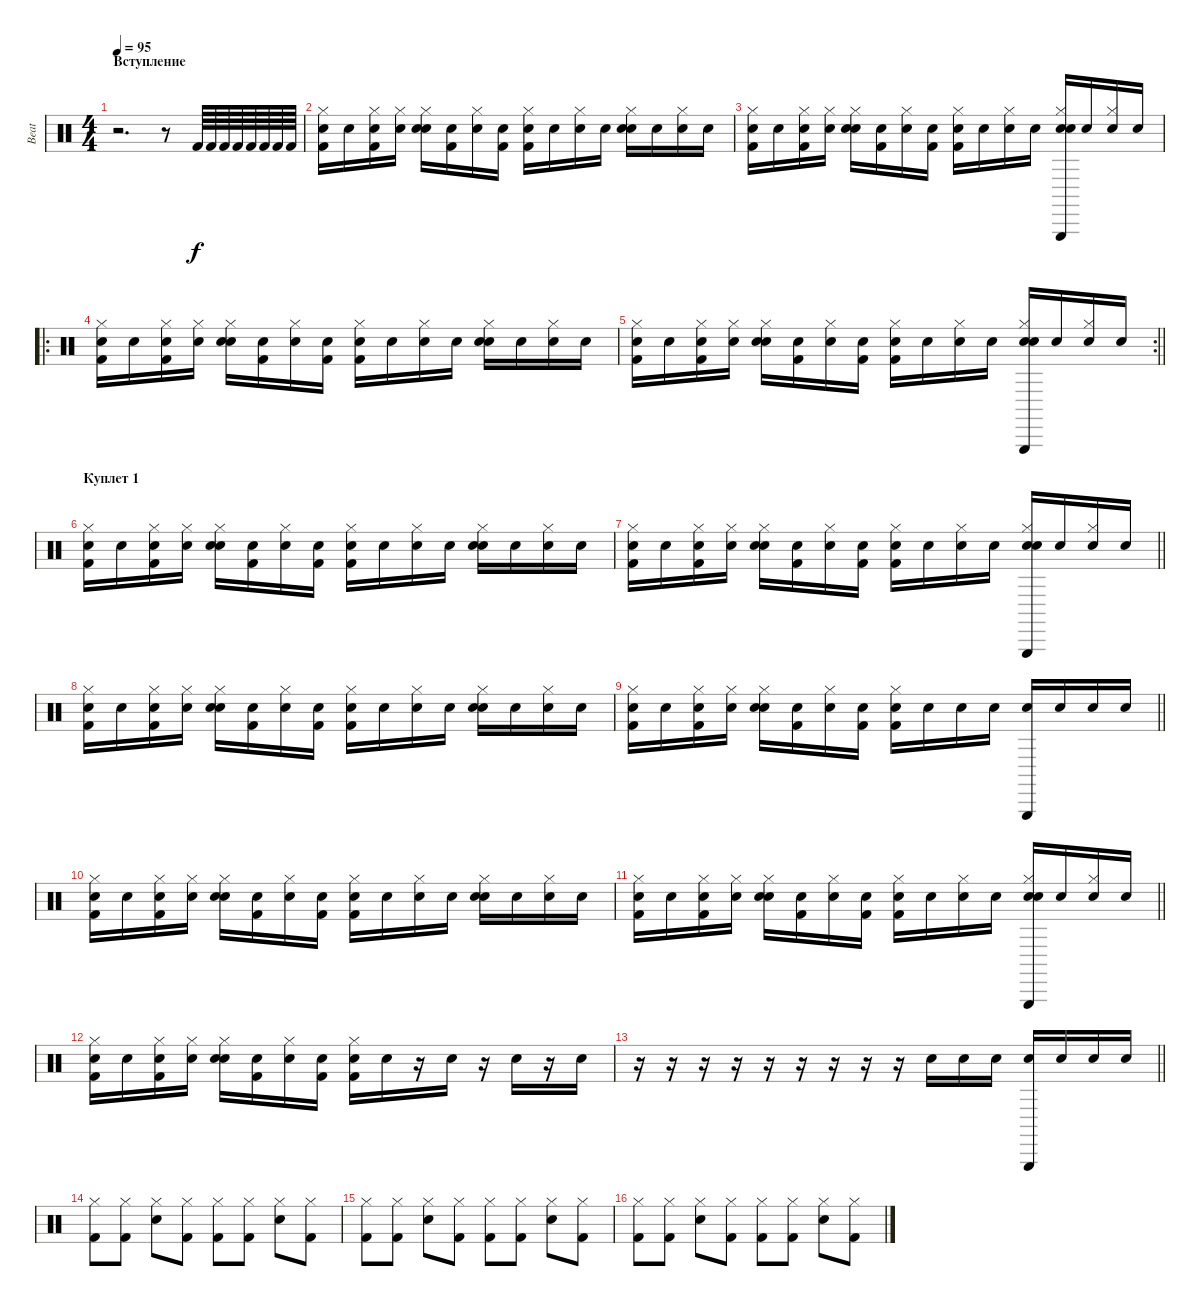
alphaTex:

\track ("Beat" "Beat") {instrument percussion}
\staff {score}
\articulation defaults
\ts (4 4)
\section ("" "Вступление")
\tempo 95
\clef neutral
\ks c
r.2{d dy f} r.8 "Kick (hit) 2".64 "Kick (hit) 2".64 "Kick (hit) 2".64 "Kick (hit) 2".64 "Kick (hit) 2".64 "Kick (hit) 2".64 "Kick (hit) 2".64 "Kick (hit) 2".64 |
("Snare (hit)"{x} "Kick (hit) 2" "Hi-Hat (closed)").16 "Snare (hit)"{x}.16 ("Snare (hit)"{x} "Kick (hit) 2" "Hi-Hat (closed)").16 ("Snare (hit)"{x} "Hi-Hat (closed)").16 ("Snare (hit)"{x} "Electric Snare (hit)" "Hi-Hat (closed)").16 ("Snare (hit)"{x} "Kick (hit) 2").16 ("Snare (hit)"{x} "Hi-Hat (closed)").16 ("Snare (hit)"{x} "Kick (hit) 2").16 ("Snare (hit)"{x} "Kick (hit) 2" "Hi-Hat (closed)").16 "Snare (hit)"{x}.16 ("Snare (hit)"{x} "Hi-Hat (closed)").16 "Snare (hit)"{x}.16 ("Snare (hit)"{x} "Electric Snare (hit)" "Hi-Hat (closed)").16 "Snare (hit)"{x}.16 ("Snare (hit)"{x} "Hi-Hat (closed)").16 "Snare (hit)"{x}.16 |
("Snare (hit)"{x} "Kick (hit) 2" "Hi-Hat (closed)").16 "Snare (hit)"{x}.16 ("Snare (hit)"{x} "Kick (hit) 2" "Hi-Hat (closed)").16 ("Snare (hit)"{x} "Hi-Hat (closed)").16 ("Snare (hit)"{x} "Electric Snare (hit)" "Hi-Hat (closed)").16 ("Snare (hit)"{x} "Kick (hit) 2").16 ("Snare (hit)"{x} "Hi-Hat (closed)").16 ("Snare (hit)"{x} "Kick (hit) 2").16 ("Snare (hit)"{x} "Kick (hit) 2" "Hi-Hat (closed)").16 "Snare (hit)"{x}.16 ("Snare (hit)"{x} "Hi-Hat (closed)").16 "Snare (hit)"{x}.16 ("Snare (hit)"{x} "Triangle (hit)" "Electric Snare (hit)" "Hi-Hat (closed)").16 "Snare (hit)"{x}.16 ("Snare (hit)"{x} "Hi-Hat (closed)").16 "Snare (hit)"{x}.16 |
\ro
("Snare (hit)"{x} "Kick (hit) 2" "Hi-Hat (closed)").16 "Snare (hit)"{x}.16 ("Snare (hit)"{x} "Kick (hit) 2" "Hi-Hat (closed)").16 ("Snare (hit)"{x} "Hi-Hat (closed)").16 ("Snare (hit)"{x} "Electric Snare (hit)" "Hi-Hat (closed)").16 ("Snare (hit)"{x} "Kick (hit) 2").16 ("Snare (hit)"{x} "Hi-Hat (closed)").16 ("Snare (hit)"{x} "Kick (hit) 2").16 ("Snare (hit)"{x} "Kick (hit) 2" "Hi-Hat (closed)").16 "Snare (hit)"{x}.16 ("Snare (hit)"{x} "Hi-Hat (closed)").16 "Snare (hit)"{x}.16 ("Snare (hit)"{x} "Electric Snare (hit)" "Hi-Hat (closed)").16 "Snare (hit)"{x}.16 ("Snare (hit)"{x} "Hi-Hat (closed)").16 "Snare (hit)"{x}.16 |
\rc 2
\barLineRight lightlight
("Snare (hit)"{x} "Kick (hit) 2" "Hi-Hat (closed)").16 "Snare (hit)"{x}.16 ("Snare (hit)"{x} "Kick (hit) 2" "Hi-Hat (closed)").16 ("Snare (hit)"{x} "Hi-Hat (closed)").16 ("Snare (hit)"{x} "Electric Snare (hit)" "Hi-Hat (closed)").16 ("Snare (hit)"{x} "Kick (hit) 2").16 ("Snare (hit)"{x} "Hi-Hat (closed)").16 ("Snare (hit)"{x} "Kick (hit) 2").16 ("Snare (hit)"{x} "Kick (hit) 2" "Hi-Hat (closed)").16 "Snare (hit)"{x}.16 ("Snare (hit)"{x} "Hi-Hat (closed)").16 "Snare (hit)"{x}.16 ("Snare (hit)"{x} "Triangle (hit)" "Electric Snare (hit)" "Hi-Hat (closed)").16 "Snare (hit)"{x}.16 ("Snare (hit)"{x} "Hi-Hat (closed)").16 "Snare (hit)"{x}.16 |
\section ("" "Куплет 1")
("Snare (hit)"{x} "Kick (hit) 2" "Hi-Hat (closed)").16 "Snare (hit)"{x}.16 ("Snare (hit)"{x} "Kick (hit) 2" "Hi-Hat (closed)").16 ("Snare (hit)"{x} "Hi-Hat (closed)").16 ("Snare (hit)"{x} "Electric Snare (hit)" "Hi-Hat (closed)").16 ("Snare (hit)"{x} "Kick (hit) 2").16 ("Snare (hit)"{x} "Hi-Hat (closed)").16 ("Snare (hit)"{x} "Kick (hit) 2").16 ("Snare (hit)"{x} "Kick (hit) 2" "Hi-Hat (closed)").16 "Snare (hit)"{x}.16 ("Snare (hit)"{x} "Hi-Hat (closed)").16 "Snare (hit)"{x}.16 ("Snare (hit)"{x} "Electric Snare (hit)" "Hi-Hat (closed)").16 "Snare (hit)"{x}.16 ("Snare (hit)"{x} "Hi-Hat (closed)").16 "Snare (hit)"{x}.16 |
\barLineRight lightlight
("Snare (hit)"{x} "Kick (hit) 2" "Hi-Hat (closed)").16 "Snare (hit)"{x}.16 ("Snare (hit)"{x} "Kick (hit) 2" "Hi-Hat (closed)").16 ("Snare (hit)"{x} "Hi-Hat (closed)").16 ("Snare (hit)"{x} "Electric Snare (hit)" "Hi-Hat (closed)").16 ("Snare (hit)"{x} "Kick (hit) 2").16 ("Snare (hit)"{x} "Hi-Hat (closed)").16 ("Snare (hit)"{x} "Kick (hit) 2").16 ("Snare (hit)"{x} "Kick (hit) 2" "Hi-Hat (closed)").16 "Snare (hit)"{x}.16 ("Snare (hit)"{x} "Hi-Hat (closed)").16 "Snare (hit)"{x}.16 ("Snare (hit)"{x} "Triangle (hit)" "Electric Snare (hit)" "Hi-Hat (closed)").16 "Snare (hit)"{x}.16 ("Snare (hit)"{x} "Hi-Hat (closed)").16 "Snare (hit)"{x}.16 |
("Snare (hit)"{x} "Kick (hit) 2" "Hi-Hat (closed)").16 "Snare (hit)"{x}.16 ("Snare (hit)"{x} "Kick (hit) 2" "Hi-Hat (closed)").16 ("Snare (hit)"{x} "Hi-Hat (closed)").16 ("Snare (hit)"{x} "Electric Snare (hit)" "Hi-Hat (closed)").16 ("Snare (hit)"{x} "Kick (hit) 2").16 ("Snare (hit)"{x} "Hi-Hat (closed)").16 ("Snare (hit)"{x} "Kick (hit) 2").16 ("Snare (hit)"{x} "Kick (hit) 2" "Hi-Hat (closed)").16 "Snare (hit)"{x}.16 ("Snare (hit)"{x} "Hi-Hat (closed)").16 "Snare (hit)"{x}.16 ("Snare (hit)"{x} "Electric Snare (hit)" "Hi-Hat (closed)").16 "Snare (hit)"{x}.16 ("Snare (hit)"{x} "Hi-Hat (closed)").16 "Snare (hit)"{x}.16 |
\barLineRight lightlight
("Snare (hit)"{x} "Kick (hit) 2" "Hi-Hat (closed)").16 "Snare (hit)"{x}.16 ("Snare (hit)"{x} "Kick (hit) 2" "Hi-Hat (closed)").16 ("Snare (hit)"{x} "Hi-Hat (closed)").16 ("Snare (hit)"{x} "Electric Snare (hit)" "Hi-Hat (closed)").16 ("Snare (hit)"{x} "Kick (hit) 2").16 ("Snare (hit)"{x} "Hi-Hat (closed)").16 ("Snare (hit)"{x} "Kick (hit) 2").16 ("Snare (hit)"{x} "Kick (hit) 2" "Hi-Hat (closed)").16 "Snare (hit)"{x}.16 "Snare (hit)"{x}.16 "Snare (hit)"{x}.16 ("Snare (hit)"{x} "Triangle (hit)").16 "Snare (hit)"{x}.16 "Snare (hit)"{x}.16 "Snare (hit)"{x}.16 |
("Snare (hit)"{x} "Kick (hit) 2" "Hi-Hat (closed)").16 "Snare (hit)"{x}.16 ("Snare (hit)"{x} "Kick (hit) 2" "Hi-Hat (closed)").16 ("Snare (hit)"{x} "Hi-Hat (closed)").16 ("Snare (hit)"{x} "Electric Snare (hit)" "Hi-Hat (closed)").16 ("Snare (hit)"{x} "Kick (hit) 2").16 ("Snare (hit)"{x} "Hi-Hat (closed)").16 ("Snare (hit)"{x} "Kick (hit) 2").16 ("Snare (hit)"{x} "Kick (hit) 2" "Hi-Hat (closed)").16 "Snare (hit)"{x}.16 ("Snare (hit)"{x} "Hi-Hat (closed)").16 "Snare (hit)"{x}.16 ("Snare (hit)"{x} "Electric Snare (hit)" "Hi-Hat (closed)").16 "Snare (hit)"{x}.16 ("Snare (hit)"{x} "Hi-Hat (closed)").16 "Snare (hit)"{x}.16 |
\barLineRight lightlight
("Snare (hit)"{x} "Kick (hit) 2" "Hi-Hat (closed)").16 "Snare (hit)"{x}.16 ("Snare (hit)"{x} "Kick (hit) 2" "Hi-Hat (closed)").16 ("Snare (hit)"{x} "Hi-Hat (closed)").16 ("Snare (hit)"{x} "Electric Snare (hit)" "Hi-Hat (closed)").16 ("Snare (hit)"{x} "Kick (hit) 2").16 ("Snare (hit)"{x} "Hi-Hat (closed)").16 ("Snare (hit)"{x} "Kick (hit) 2").16 ("Snare (hit)"{x} "Kick (hit) 2" "Hi-Hat (closed)").16 "Snare (hit)"{x}.16 ("Snare (hit)"{x} "Hi-Hat (closed)").16 "Snare (hit)"{x}.16 ("Snare (hit)"{x} "Triangle (hit)" "Electric Snare (hit)" "Hi-Hat (closed)").16 "Snare (hit)"{x}.16 ("Snare (hit)"{x} "Hi-Hat (closed)").16 "Snare (hit)"{x}.16 |
("Snare (hit)"{x} "Kick (hit) 2" "Hi-Hat (closed)").16 "Snare (hit)"{x}.16 ("Snare (hit)"{x} "Kick (hit) 2" "Hi-Hat (closed)").16 ("Snare (hit)"{x} "Hi-Hat (closed)").16 ("Snare (hit)"{x} "Electric Snare (hit)" "Hi-Hat (closed)").16 ("Snare (hit)"{x} "Kick (hit) 2").16 ("Snare (hit)"{x} "Hi-Hat (closed)").16 ("Snare (hit)"{x} "Kick (hit) 2").16 ("Snare (hit)"{x} "Kick (hit) 2" "Hi-Hat (closed)").16 "Snare (hit)"{x}.16 r.16 "Snare (hit)"{x}.16 r.16 "Snare (hit)"{x}.16 r.16 "Snare (hit)"{x}.16 |
\barLineRight lightlight
r.16 r.16 r.16 r.16 r.16 r.16 r.16 r.16 r.16 "Snare (hit)"{x}.16 "Snare (hit)"{x}.16 "Snare (hit)"{x}.16 ("Snare (hit)"{x} "Triangle (hit)").16 "Snare (hit)"{x}.16 "Snare (hit)"{x}.16 "Snare (hit)"{x}.16 |
\section ("" "")
("Hi-Hat (closed)" "Kick (hit) 2").8 ("Hi-Hat (closed)" "Kick (hit) 2").8 ("Hi-Hat (closed)" "Snare (hit) 2").8 ("Hi-Hat (closed)" "Kick (hit) 2").8 ("Hi-Hat (closed)" "Kick (hit) 2").8 ("Hi-Hat (closed)" "Kick (hit) 2").8 ("Hi-Hat (closed)" "Snare (hit) 2").8 ("Hi-Hat (closed)" "Kick (hit) 2").8 |
("Hi-Hat (closed)" "Kick (hit) 2").8 ("Hi-Hat (closed)" "Kick (hit) 2").8 ("Hi-Hat (closed)" "Snare (hit) 2").8 ("Hi-Hat (closed)" "Kick (hit) 2").8 ("Hi-Hat (closed)" "Kick (hit) 2").8 ("Hi-Hat (closed)" "Kick (hit) 2").8 ("Hi-Hat (closed)" "Snare (hit) 2").8 ("Hi-Hat (closed)" "Kick (hit) 2").8 |
("Hi-Hat (closed)" "Kick (hit) 2").8 ("Hi-Hat (closed)" "Kick (hit) 2").8 ("Hi-Hat (closed)" "Snare (hit) 2").8 ("Hi-Hat (closed)" "Kick (hit) 2").8 ("Hi-Hat (closed)" "Kick (hit) 2").8 ("Hi-Hat (closed)" "Kick (hit) 2").8 ("Hi-Hat (closed)" "Snare (hit) 2").8 ("Hi-Hat (closed)" "Kick (hit) 2").8
